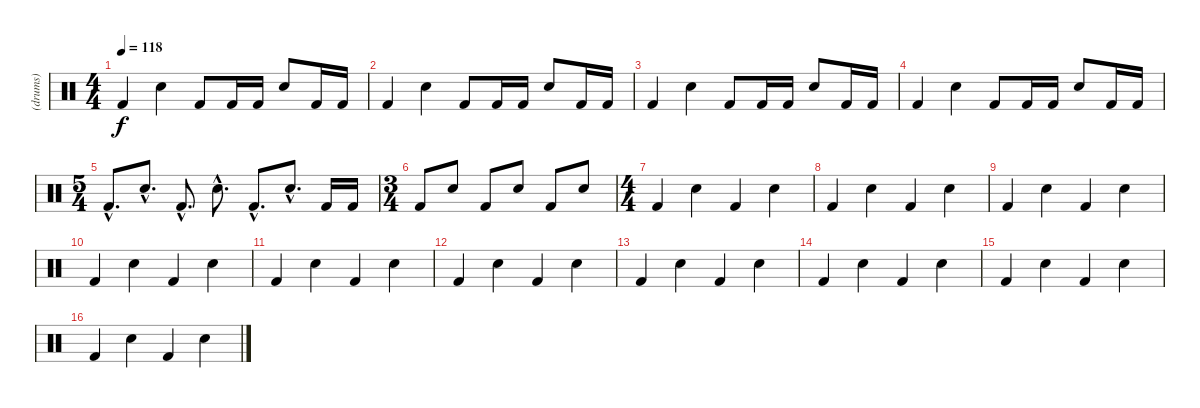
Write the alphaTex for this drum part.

\track ("(drums)" "(drums)") {instrument percussion}
\staff {score}
\articulation defaults
\ts (4 4)
\tempo 118
\clef neutral
\ks c "Kick (hit) 2".4{dy f} "Snare (hit) 2".4 "Kick (hit) 2".8 "Kick (hit) 2".16 "Kick (hit) 2".16 "Snare (hit) 2".8 "Kick (hit) 2".16 "Kick (hit) 2".16
|
"Kick (hit) 2".4 "Snare (hit) 2".4 "Kick (hit) 2".8 "Kick (hit) 2".16 "Kick (hit) 2".16 "Snare (hit) 2".8 "Kick (hit) 2".16 "Kick (hit) 2".16 |
"Kick (hit) 2".4 "Snare (hit) 2".4 "Kick (hit) 2".8 "Kick (hit) 2".16 "Kick (hit) 2".16 "Snare (hit) 2".8 "Kick (hit) 2".16 "Kick (hit) 2".16 |
"Kick (hit) 2".4 "Snare (hit) 2".4 "Kick (hit) 2".8 "Kick (hit) 2".16 "Kick (hit) 2".16 "Snare (hit) 2".8 "Kick (hit) 2".16 "Kick (hit) 2".16 |
\ts (5 4)
"Kick (hit) 2"{hac}.8{d} "Snare (hit) 2"{hac}.8{d} "Kick (hit) 2"{hac}.8{d} "Snare (hit) 2"{hac}.8{d} "Kick (hit) 2"{hac}.8{d} "Snare (hit) 2"{hac}.8{d} "Kick (hit) 2".16 "Kick (hit) 2".16 |
\ts (3 4)
"Kick (hit) 2".8 "Snare (hit) 2".8 "Kick (hit) 2".8 "Snare (hit) 2".8 "Kick (hit) 2".8 "Snare (hit) 2".8 |
\ts (4 4)
"Kick (hit) 2".4 "Snare (hit) 2".4 "Kick (hit) 2".4 "Snare (hit) 2".4 |
"Kick (hit) 2".4 "Snare (hit) 2".4 "Kick (hit) 2".4 "Snare (hit) 2".4 |
"Kick (hit) 2".4 "Snare (hit) 2".4 "Kick (hit) 2".4 "Snare (hit) 2".4 |
"Kick (hit) 2".4 "Snare (hit) 2".4 "Kick (hit) 2".4 "Snare (hit) 2".4 |
"Kick (hit) 2".4 "Snare (hit) 2".4 "Kick (hit) 2".4 "Snare (hit) 2".4 |
"Kick (hit) 2".4 "Snare (hit) 2".4 "Kick (hit) 2".4 "Snare (hit) 2".4 |
"Kick (hit) 2".4 "Snare (hit) 2".4 "Kick (hit) 2".4 "Snare (hit) 2".4 |
"Kick (hit) 2".4 "Snare (hit) 2".4 "Kick (hit) 2".4 "Snare (hit) 2".4 |
"Kick (hit) 2".4 "Snare (hit) 2".4 "Kick (hit) 2".4 "Snare (hit) 2".4 |
"Kick (hit) 2".4 "Snare (hit) 2".4 "Kick (hit) 2".4 "Snare (hit) 2".4
